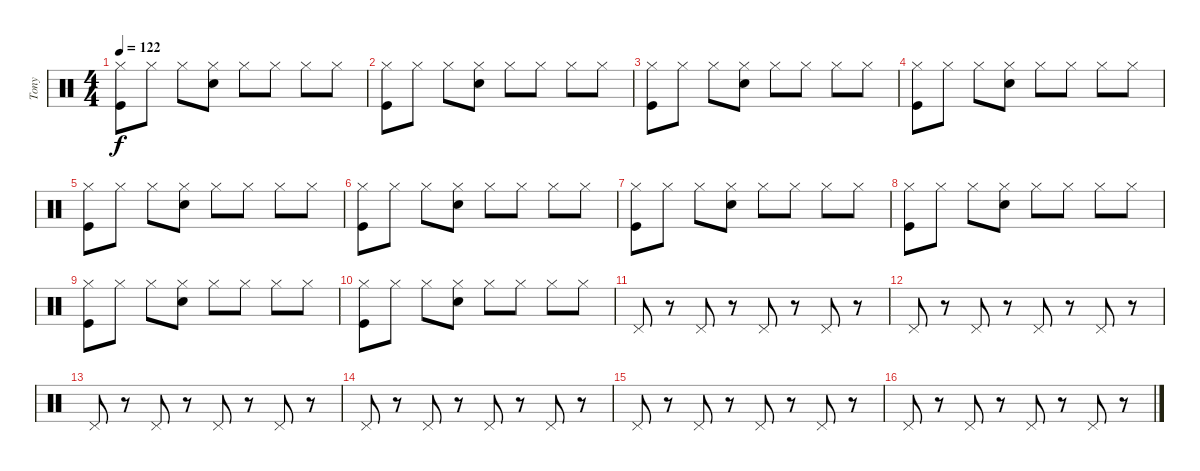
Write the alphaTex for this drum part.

\track ("Tony" "Tony") {instrument percussion}
\staff {score}
\articulation defaults
\ts (4 4)
\tempo 122
\clef neutral
\ks c
("Hi-Hat (closed)" "Kick (hit)").8{dy f} "Hi-Hat (closed)".8 "Hi-Hat (closed)".8 ("Hi-Hat (closed)" "Snare (hit) 2").8 "Hi-Hat (closed)".8 "Hi-Hat (closed)".8 "Hi-Hat (closed)".8 "Hi-Hat (closed)".8 |
("Hi-Hat (closed)" "Kick (hit)").8 "Hi-Hat (closed)".8 "Hi-Hat (closed)".8 ("Hi-Hat (closed)" "Snare (hit) 2").8 "Hi-Hat (closed)".8 "Hi-Hat (closed)".8 "Hi-Hat (closed)".8 "Hi-Hat (closed)".8 |
("Hi-Hat (closed)" "Kick (hit)").8 "Hi-Hat (closed)".8 "Hi-Hat (closed)".8 ("Hi-Hat (closed)" "Snare (hit) 2").8 "Hi-Hat (closed)".8 "Hi-Hat (closed)".8 "Hi-Hat (closed)".8 "Hi-Hat (closed)".8 |
("Hi-Hat (closed)" "Kick (hit)").8 "Hi-Hat (closed)".8 "Hi-Hat (closed)".8 ("Hi-Hat (closed)" "Snare (hit) 2").8 "Hi-Hat (closed)".8 "Hi-Hat (closed)".8 "Hi-Hat (closed)".8 "Hi-Hat (closed)".8 |
("Hi-Hat (closed)" "Kick (hit)").8 "Hi-Hat (closed)".8 "Hi-Hat (closed)".8 ("Hi-Hat (closed)" "Snare (hit) 2").8 "Hi-Hat (closed)".8 "Hi-Hat (closed)".8 "Hi-Hat (closed)".8 "Hi-Hat (closed)".8 |
("Hi-Hat (closed)" "Kick (hit)").8 "Hi-Hat (closed)".8 "Hi-Hat (closed)".8 ("Hi-Hat (closed)" "Snare (hit) 2").8 "Hi-Hat (closed)".8 "Hi-Hat (closed)".8 "Hi-Hat (closed)".8 "Hi-Hat (closed)".8 |
("Hi-Hat (closed)" "Kick (hit)").8 "Hi-Hat (closed)".8 "Hi-Hat (closed)".8 ("Hi-Hat (closed)" "Snare (hit) 2").8 "Hi-Hat (closed)".8 "Hi-Hat (closed)".8 "Hi-Hat (closed)".8 "Hi-Hat (closed)".8 |
("Hi-Hat (closed)" "Kick (hit)").8 "Hi-Hat (closed)".8 "Hi-Hat (closed)".8 ("Hi-Hat (closed)" "Snare (hit) 2").8 "Hi-Hat (closed)".8 "Hi-Hat (closed)".8 "Hi-Hat (closed)".8 "Hi-Hat (closed)".8 |
("Hi-Hat (closed)" "Kick (hit)").8 "Hi-Hat (closed)".8 "Hi-Hat (closed)".8 ("Hi-Hat (closed)" "Snare (hit) 2").8 "Hi-Hat (closed)".8 "Hi-Hat (closed)".8 "Hi-Hat (closed)".8 "Hi-Hat (closed)".8 |
("Hi-Hat (closed)" "Kick (hit)").8 "Hi-Hat (closed)".8 "Hi-Hat (closed)".8 ("Hi-Hat (closed)" "Snare (hit) 2").8 "Hi-Hat (closed)".8 "Hi-Hat (closed)".8 "Hi-Hat (closed)".8 "Hi-Hat (closed)".8 |
"Pedal Hi-Hat (hit)".8 r.8 "Pedal Hi-Hat (hit)".8 r.8 "Pedal Hi-Hat (hit)".8 r.8 "Pedal Hi-Hat (hit)".8 r.8 |
"Pedal Hi-Hat (hit)".8 r.8 "Pedal Hi-Hat (hit)".8 r.8 "Pedal Hi-Hat (hit)".8 r.8 "Pedal Hi-Hat (hit)".8 r.8 |
"Pedal Hi-Hat (hit)".8 r.8 "Pedal Hi-Hat (hit)".8 r.8 "Pedal Hi-Hat (hit)".8 r.8 "Pedal Hi-Hat (hit)".8 r.8 |
"Pedal Hi-Hat (hit)".8 r.8 "Pedal Hi-Hat (hit)".8 r.8 "Pedal Hi-Hat (hit)".8 r.8 "Pedal Hi-Hat (hit)".8 r.8 |
"Pedal Hi-Hat (hit)".8 r.8 "Pedal Hi-Hat (hit)".8 r.8 "Pedal Hi-Hat (hit)".8 r.8 "Pedal Hi-Hat (hit)".8 r.8 |
"Pedal Hi-Hat (hit)".8 r.8 "Pedal Hi-Hat (hit)".8 r.8 "Pedal Hi-Hat (hit)".8 r.8 "Pedal Hi-Hat (hit)".8 r.8
